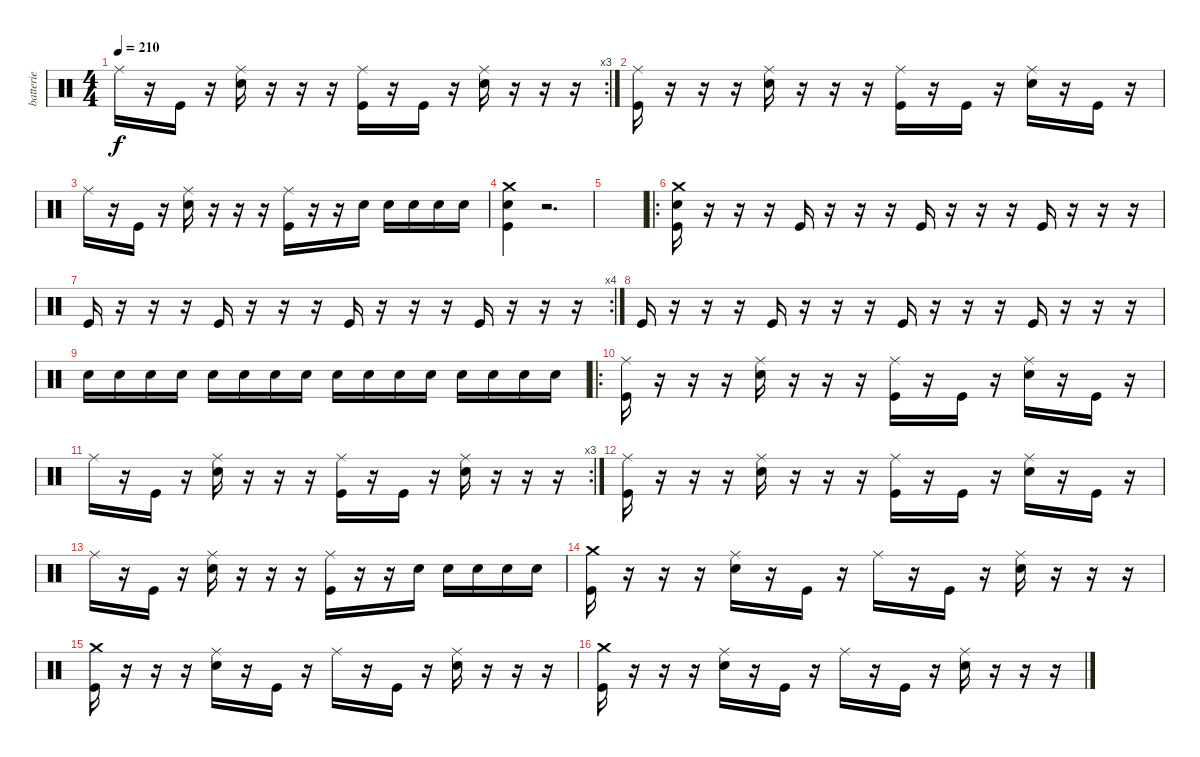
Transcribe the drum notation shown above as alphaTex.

\track ("batterie " "batterie ") {instrument percussion}
\staff {score}
\articulation defaults
\rc 3
\ts (4 4)
\tempo 210
\clef neutral
\ks c "Ride (middle)".16{dy f}
r.16 "Kick (hit)".16 r.16 ("Ride (middle)" "Snare (hit) 2").16 r.16 r.16 r.16 ("Ride (middle)" "Kick (hit)").16 r.16 "Kick (hit)".16 r.16 ("Ride (middle)" "Snare (hit) 2").16 r.16 r.16 r.16 |
("Ride (middle)" "Kick (hit)").16 r.16 r.16 r.16 ("Ride (middle)" "Snare (hit) 2").16 r.16 r.16 r.16 ("Ride (middle)" "Kick (hit)").16 r.16 "Kick (hit)".16 r.16 ("Ride (middle)" "Snare (hit) 2").16 r.16 "Kick (hit)".16 r.16 |
"Ride (middle)".16 r.16 "Kick (hit)".16 r.16 ("Ride (middle)" "Snare (hit) 2").16 r.16 r.16 r.16 ("Ride (middle)" "Kick (hit)").16 r.16 r.16 "Snare (hit) 2".16 "Snare (hit) 2".16 "Snare (hit) 2".16 "Snare (hit) 2".16 "Snare (hit) 2".16 |
("Crash medium (hit)" "Snare (hit) 2" "Kick (hit)").4 r.2{d} |
|
\ro
("Crash medium (hit)" "Snare (hit) 2" "Kick (hit)").16 r.16 r.16 r.16 "Kick (hit)".16 r.16 r.16 r.16 "Kick (hit)".16 r.16 r.16 r.16 "Kick (hit)".16 r.16 r.16 r.16 |
\rc 4 "Kick (hit)".16
r.16 r.16 r.16 "Kick (hit)".16 r.16 r.16 r.16 "Kick (hit)".16 r.16 r.16 r.16 "Kick (hit)".16 r.16 r.16 r.16 |
"Kick (hit)".16 r.16 r.16 r.16 "Kick (hit)".16 r.16 r.16 r.16 "Kick (hit)".16 r.16 r.16 r.16 "Kick (hit)".16 r.16 r.16 r.16 |
"Snare (hit) 2".16 "Snare (hit) 2".16 "Snare (hit) 2".16 "Snare (hit) 2".16 "Snare (hit) 2".16 "Snare (hit) 2".16 "Snare (hit) 2".16 "Snare (hit) 2".16 "Snare (hit) 2".16 "Snare (hit) 2".16 "Snare (hit) 2".16 "Snare (hit) 2".16 "Snare (hit) 2".16 "Snare (hit) 2".16 "Snare (hit) 2".16 "Snare (hit) 2".16 |
\ro
("Ride (middle)" "Kick (hit)").16 r.16 r.16 r.16 ("Ride (middle)" "Snare (hit) 2").16 r.16 r.16 r.16 ("Ride (middle)" "Kick (hit)").16 r.16 "Kick (hit)".16 r.16 ("Ride (middle)" "Snare (hit) 2").16 r.16 "Kick (hit)".16 r.16 |
\rc 3 "Ride (middle)".16
r.16 "Kick (hit)".16 r.16 ("Ride (middle)" "Snare (hit) 2").16 r.16 r.16 r.16 ("Ride (middle)" "Kick (hit)").16 r.16 "Kick (hit)".16 r.16 ("Ride (middle)" "Snare (hit) 2").16 r.16 r.16 r.16 |
("Ride (middle)" "Kick (hit)").16 r.16 r.16 r.16 ("Ride (middle)" "Snare (hit) 2").16 r.16 r.16 r.16 ("Ride (middle)" "Kick (hit)").16 r.16 "Kick (hit)".16 r.16 ("Ride (middle)" "Snare (hit) 2").16 r.16 "Kick (hit)".16 r.16 |
"Ride (middle)".16 r.16 "Kick (hit)".16 r.16 ("Ride (middle)" "Snare (hit) 2").16 r.16 r.16 r.16 ("Ride (middle)" "Kick (hit)").16 r.16 r.16 "Snare (hit) 2".16 "Snare (hit) 2".16 "Snare (hit) 2".16 "Snare (hit) 2".16 "Snare (hit) 2".16 |
("Crash medium (hit)" "Kick (hit)").16 r.16 r.16 r.16 ("Ride (middle)" "Snare (hit) 2").16 r.16 "Kick (hit)".16 r.16 "Ride (middle)".16 r.16 "Kick (hit)".16 r.16 ("Ride (middle)" "Snare (hit) 2").16 r.16 r.16 r.16 |
("Crash medium (hit)" "Kick (hit)").16 r.16 r.16 r.16 ("Ride (middle)" "Snare (hit) 2").16 r.16 "Kick (hit)".16 r.16 "Ride (middle)".16 r.16 "Kick (hit)".16 r.16 ("Ride (middle)" "Snare (hit) 2").16 r.16 r.16 r.16 |
("Crash medium (hit)" "Kick (hit)").16 r.16 r.16 r.16 ("Ride (middle)" "Snare (hit) 2").16 r.16 "Kick (hit)".16 r.16 "Ride (middle)".16 r.16 "Kick (hit)".16 r.16 ("Ride (middle)" "Snare (hit) 2").16 r.16 r.16 r.16
